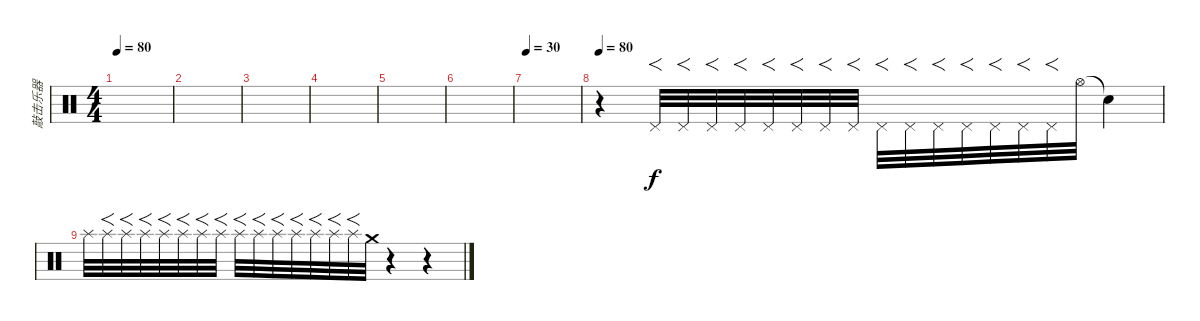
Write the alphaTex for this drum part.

\track ("敲击乐器" "敲击乐器") {instrument percussion}
\staff {score}
\articulation defaults
\ts (4 4)
\tempo 80
\clef neutral
\ks c
|
|
|
|
|
|
\tempo 30
|
\tempo 80
r.4 "Pedal Hi-Hat (hit)".32{f volume 7} "Pedal Hi-Hat (hit)".32{f} "Pedal Hi-Hat (hit)".32{f} "Pedal Hi-Hat (hit)".32{f} "Pedal Hi-Hat (hit)".32{f} "Pedal Hi-Hat (hit)".32{f} "Pedal Hi-Hat (hit)".32{f} "Pedal Hi-Hat (hit)".32{f} "Pedal Hi-Hat (hit)".32{f} "Pedal Hi-Hat (hit)".32{f} "Pedal Hi-Hat (hit)".32{f} "Pedal Hi-Hat (hit)".32{f} "Pedal Hi-Hat (hit)".32{f} "Pedal Hi-Hat (hit)".32{f} "Pedal Hi-Hat (hit)".32{f} "Hi-Hat (open)".32 "Snare (hit)"{t}.4 |
"Splash (hit)".32 "Splash (hit)".32{f} "Splash (hit)".32{f} "Splash (hit)".32{f} "Splash (hit)".32{f} "Splash (hit)".32{f} "Splash (hit)".32{f} "Splash (hit)".32{f} "Splash (hit)".32{f} "Splash (hit)".32{f} "Splash (hit)".32{f} "Splash (hit)".32{f} "Splash (hit)".32{f} "Splash (hit)".32{f} "Splash (hit)".32{f} "Crash medium (hit)".32 r.4 r.4
